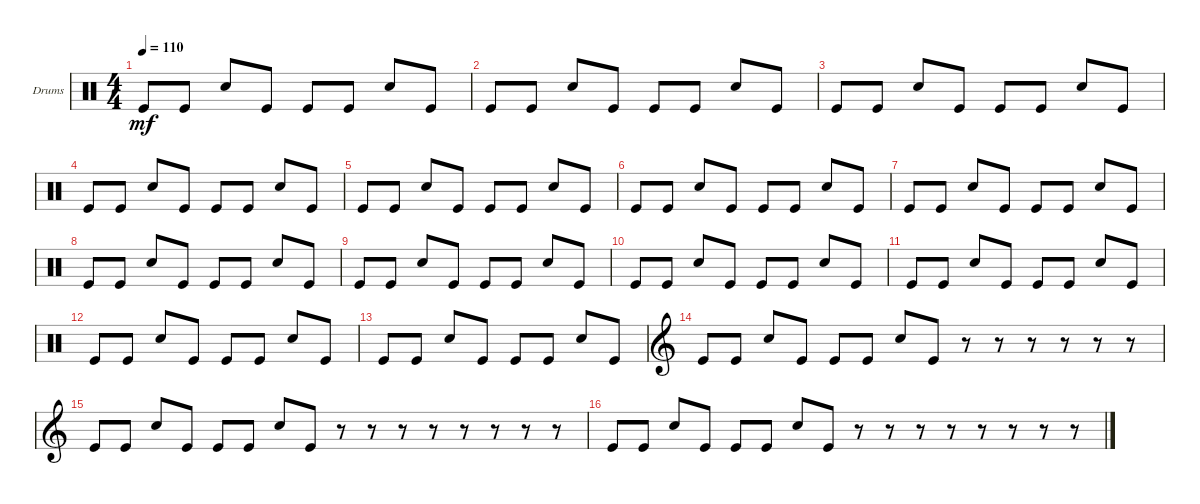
\defaultSystemsLayout 4
\bracketExtendMode groupsimilarinstruments
\firstSystemTrackNameOrientation horizontal
\otherSystemsTrackNameOrientation horizontal
\track ("Tico Torres" "Drums") {instrument percussion}
\staff {score}
\articulation defaults
\ts (4 4)
\tempo 110
\clef neutral
\ks c "Kick (hit)".8{dy mf} "Kick (hit)".8 "Snare (hit) 2".8 "Kick (hit)".8 "Kick (hit)".8 "Kick (hit)".8 "Snare (hit) 2".8 "Kick (hit)".8
|
"Kick (hit)".8 "Kick (hit)".8 "Snare (hit) 2".8 "Kick (hit)".8 "Kick (hit)".8 "Kick (hit)".8 "Snare (hit) 2".8 "Kick (hit)".8 |
"Kick (hit)".8 "Kick (hit)".8 "Snare (hit) 2".8 "Kick (hit)".8 "Kick (hit)".8 "Kick (hit)".8 "Snare (hit) 2".8 "Kick (hit)".8 |
"Kick (hit)".8 "Kick (hit)".8 "Snare (hit) 2".8 "Kick (hit)".8 "Kick (hit)".8 "Kick (hit)".8 "Snare (hit) 2".8 "Kick (hit)".8 |
"Kick (hit)".8 "Kick (hit)".8 "Snare (hit) 2".8 "Kick (hit)".8 "Kick (hit)".8 "Kick (hit)".8 "Snare (hit) 2".8 "Kick (hit)".8 |
"Kick (hit)".8 "Kick (hit)".8 "Snare (hit) 2".8 "Kick (hit)".8 "Kick (hit)".8 "Kick (hit)".8 "Snare (hit) 2".8 "Kick (hit)".8 |
"Kick (hit)".8 "Kick (hit)".8 "Snare (hit) 2".8 "Kick (hit)".8 "Kick (hit)".8 "Kick (hit)".8 "Snare (hit) 2".8 "Kick (hit)".8 |
"Kick (hit)".8 "Kick (hit)".8 "Snare (hit) 2".8 "Kick (hit)".8 "Kick (hit)".8 "Kick (hit)".8 "Snare (hit) 2".8 "Kick (hit)".8 |
"Kick (hit)".8 "Kick (hit)".8 "Snare (hit) 2".8 "Kick (hit)".8 "Kick (hit)".8 "Kick (hit)".8 "Snare (hit) 2".8 "Kick (hit)".8 |
"Kick (hit)".8 "Kick (hit)".8 "Snare (hit) 2".8 "Kick (hit)".8 "Kick (hit)".8 "Kick (hit)".8 "Snare (hit) 2".8 "Kick (hit)".8 |
"Kick (hit)".8 "Kick (hit)".8 "Snare (hit) 2".8 "Kick (hit)".8 "Kick (hit)".8 "Kick (hit)".8 "Snare (hit) 2".8 "Kick (hit)".8 |
"Kick (hit)".8 "Kick (hit)".8 "Snare (hit) 2".8 "Kick (hit)".8 "Kick (hit)".8 "Kick (hit)".8 "Snare (hit) 2".8 "Kick (hit)".8 |
"Kick (hit)".8 "Kick (hit)".8 "Snare (hit) 2".8 "Kick (hit)".8 "Kick (hit)".8 "Kick (hit)".8 "Snare (hit) 2".8 "Kick (hit)".8 |
\clef g2 "Kick (hit)".8 "Kick (hit)".8 "Snare (hit) 2".8 "Kick (hit)".8 "Kick (hit)".8 "Kick (hit)".8 "Snare (hit) 2".8 "Kick (hit)".8
r.8 r.8 r.8 r.8 r.8 r.8 |
"Kick (hit)".8 "Kick (hit)".8 "Snare (hit) 2".8 "Kick (hit)".8 "Kick (hit)".8 "Kick (hit)".8 "Snare (hit) 2".8 "Kick (hit)".8 r.8 r.8 r.8 r.8 r.8 r.8 r.8 r.8 |
"Kick (hit)".8 "Kick (hit)".8 "Snare (hit) 2".8 "Kick (hit)".8 "Kick (hit)".8 "Kick (hit)".8 "Snare (hit) 2".8 "Kick (hit)".8 r.8 r.8 r.8 r.8 r.8 r.8 r.8 r.8
